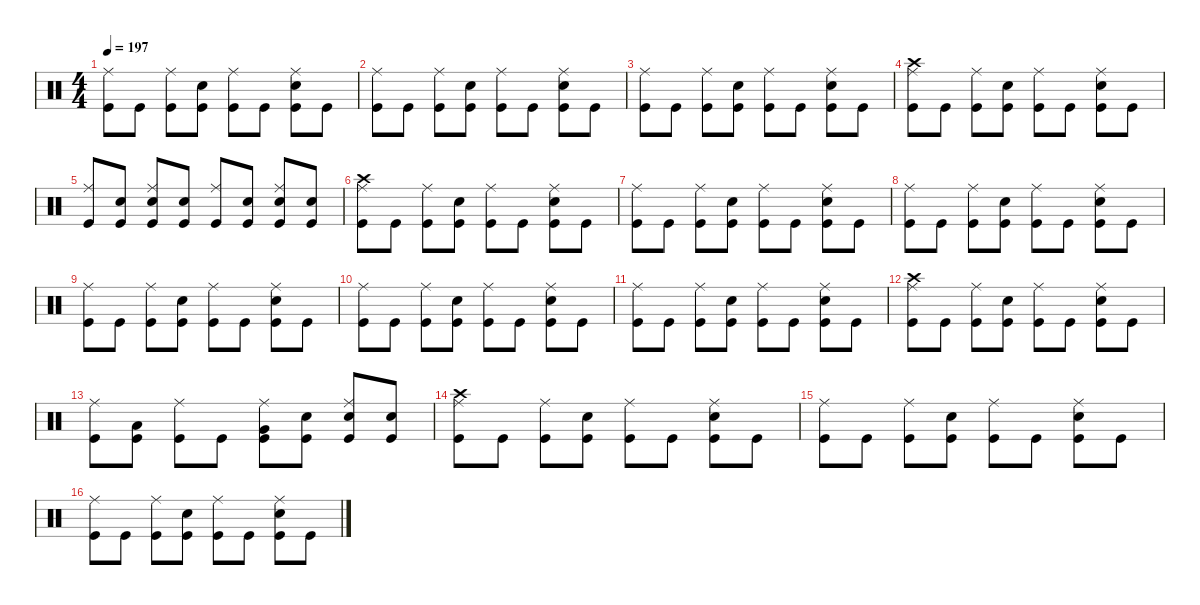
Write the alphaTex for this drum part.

\defaultSystemsLayout 4
\hideDynamics
\bracketExtendMode nobrackets
\singleTrackTrackNamePolicy hidden
\multiTrackTrackNamePolicy hidden
\firstSystemTrackNameMode fullname
\firstSystemTrackNameOrientation horizontal
\otherSystemsTrackNameOrientation horizontal
\track ("Drums" "drm.") {defaultSystemsLayout 4 instrument percussion}
\staff {score}
\articulation defaults
\ts (4 4)
\tempo 197
\clef neutral
\ks c
("Ride (middle)" "Kick (hit)").8{dy f beam Down} "Kick (hit)".8{beam Down} ("Ride (middle)" "Kick (hit)").8{beam Down} ("Snare (hit) 2" "Kick (hit)").8{beam Down} ("Ride (middle)" "Kick (hit)").8{beam Down} "Kick (hit)".8{beam Down} ("Ride (middle)" "Snare (hit) 2" "Kick (hit)").8{beam Down} "Kick (hit)".8{beam Down} |
("Ride (middle)" "Kick (hit)").8{beam Down} "Kick (hit)".8{beam Down} ("Ride (middle)" "Kick (hit)").8{beam Down} ("Snare (hit) 2" "Kick (hit)").8{beam Down} ("Ride (middle)" "Kick (hit)").8{beam Down} "Kick (hit)".8{beam Down} ("Ride (middle)" "Snare (hit) 2" "Kick (hit)").8{beam Down} "Kick (hit)".8{beam Down} |
("Ride (middle)" "Kick (hit)").8{beam Down} "Kick (hit)".8{beam Down} ("Ride (middle)" "Kick (hit)").8{beam Down} ("Snare (hit) 2" "Kick (hit)").8{beam Down} ("Ride (middle)" "Kick (hit)").8{beam Down} "Kick (hit)".8{beam Down} ("Ride (middle)" "Snare (hit) 2" "Kick (hit)").8{beam Down} "Kick (hit)".8{beam Down} |
("Crash high (hit)" "Ride (middle)" "Kick (hit)").8{beam Down} "Kick (hit)".8{beam Down} ("Ride (middle)" "Kick (hit)").8{beam Down} ("Snare (hit) 2" "Kick (hit)").8{beam Down} ("Ride (middle)" "Kick (hit)").8{beam Down} "Kick (hit)".8{beam Down} ("Ride (middle)" "Snare (hit) 2" "Kick (hit)").8{beam Down} "Kick (hit)".8{beam Down} |
("Ride (middle)" "Kick (hit)").8{beam Up} ("Snare (hit) 2" "Kick (hit)").8{beam Up} ("Ride (middle)" "Snare (hit) 2" "Kick (hit)").8{beam Up} ("Snare (hit) 2" "Kick (hit)").8{beam Up} ("Ride (middle)" "Kick (hit)").8{beam Up} ("Snare (hit) 2" "Kick (hit)").8{beam Up} ("Ride (middle)" "Snare (hit) 2" "Kick (hit)").8{beam Up} ("Snare (hit) 2" "Kick (hit)").8{beam Up} |
("Crash high (hit)" "Ride (middle)" "Kick (hit)").8{beam Down} "Kick (hit)".8{beam Down} ("Ride (middle)" "Kick (hit)").8{beam Down} ("Snare (hit) 2" "Kick (hit)").8{beam Down} ("Ride (middle)" "Kick (hit)").8{beam Down} "Kick (hit)".8{beam Down} ("Ride (middle)" "Snare (hit) 2" "Kick (hit)").8{beam Down} "Kick (hit)".8{beam Down} |
("Ride (middle)" "Kick (hit)").8{beam Down} "Kick (hit)".8{beam Down} ("Ride (middle)" "Kick (hit)").8{beam Down} ("Snare (hit) 2" "Kick (hit)").8{beam Down} ("Ride (middle)" "Kick (hit)").8{beam Down} "Kick (hit)".8{beam Down} ("Ride (middle)" "Snare (hit) 2" "Kick (hit)").8{beam Down} "Kick (hit)".8{beam Down} |
("Ride (middle)" "Kick (hit)").8{beam Down} "Kick (hit)".8{beam Down} ("Ride (middle)" "Kick (hit)").8{beam Down} ("Snare (hit) 2" "Kick (hit)").8{beam Down} ("Ride (middle)" "Kick (hit)").8{beam Down} "Kick (hit)".8{beam Down} ("Ride (middle)" "Snare (hit) 2" "Kick (hit)").8{beam Down} "Kick (hit)".8{beam Down} |
("Ride (middle)" "Kick (hit)").8{beam Down} "Kick (hit)".8{beam Down} ("Ride (middle)" "Kick (hit)").8{beam Down} ("Snare (hit) 2" "Kick (hit)").8{beam Down} ("Ride (middle)" "Kick (hit)").8{beam Down} "Kick (hit)".8{beam Down} ("Ride (middle)" "Snare (hit) 2" "Kick (hit)").8{beam Down} "Kick (hit)".8{beam Down} |
("Ride (middle)" "Kick (hit)").8{beam Down} "Kick (hit)".8{beam Down} ("Ride (middle)" "Kick (hit)").8{beam Down} ("Snare (hit) 2" "Kick (hit)").8{beam Down} ("Ride (middle)" "Kick (hit)").8{beam Down} "Kick (hit)".8{beam Down} ("Ride (middle)" "Snare (hit) 2" "Kick (hit)").8{beam Down} "Kick (hit)".8{beam Down} |
("Ride (middle)" "Kick (hit)").8{beam Down} "Kick (hit)".8{beam Down} ("Ride (middle)" "Kick (hit)").8{beam Down} ("Snare (hit) 2" "Kick (hit)").8{beam Down} ("Ride (middle)" "Kick (hit)").8{beam Down} "Kick (hit)".8{beam Down} ("Ride (middle)" "Snare (hit) 2" "Kick (hit)").8{beam Down} "Kick (hit)".8{beam Down} |
("Crash high (hit)" "Ride (middle)" "Kick (hit)").8{beam Down} "Kick (hit)".8{beam Down} ("Ride (middle)" "Kick (hit)").8{beam Down} ("Snare (hit) 2" "Kick (hit)").8{beam Down} ("Ride (middle)" "Kick (hit)").8{beam Down} "Kick (hit)".8{beam Down} ("Ride (middle)" "Snare (hit) 2" "Kick (hit)").8{beam Down} "Kick (hit)".8{beam Down} |
("Ride (middle)" "Kick (hit)").8{beam Down} ("Low Tom (hit)" "Kick (hit)").8{beam Down} ("Ride (middle)" "Kick (hit)").8{beam Down} "Kick (hit)".8{beam Down} ("Ride (middle)" "Very Low Tom (hit)" "Kick (hit)").8{beam Down} ("Snare (hit) 2" "Kick (hit)").8{beam Down} ("Ride (middle)" "Snare (hit) 2" "Kick (hit)").8{beam Up} ("Snare (hit) 2" "Kick (hit)").8{beam Up} |
("Crash high (hit)" "Ride (middle)" "Kick (hit)").8{beam Down} "Kick (hit)".8{beam Down} ("Ride (middle)" "Kick (hit)").8{beam Down} ("Snare (hit) 2" "Kick (hit)").8{beam Down} ("Ride (middle)" "Kick (hit)").8{beam Down} "Kick (hit)".8{beam Down} ("Ride (middle)" "Snare (hit) 2" "Kick (hit)").8{beam Down} "Kick (hit)".8{beam Down} |
("Ride (middle)" "Kick (hit)").8{beam Down} "Kick (hit)".8{beam Down} ("Ride (middle)" "Kick (hit)").8{beam Down} ("Snare (hit) 2" "Kick (hit)").8{beam Down} ("Ride (middle)" "Kick (hit)").8{beam Down} "Kick (hit)".8{beam Down} ("Ride (middle)" "Snare (hit) 2" "Kick (hit)").8{beam Down} "Kick (hit)".8{beam Down} |
("Ride (middle)" "Kick (hit)").8{beam Down} "Kick (hit)".8{beam Down} ("Ride (middle)" "Kick (hit)").8{beam Down} ("Snare (hit) 2" "Kick (hit)").8{beam Down} ("Ride (middle)" "Kick (hit)").8{beam Down} "Kick (hit)".8{beam Down} ("Ride (middle)" "Snare (hit) 2" "Kick (hit)").8{beam Down} "Kick (hit)".8{beam Down}
